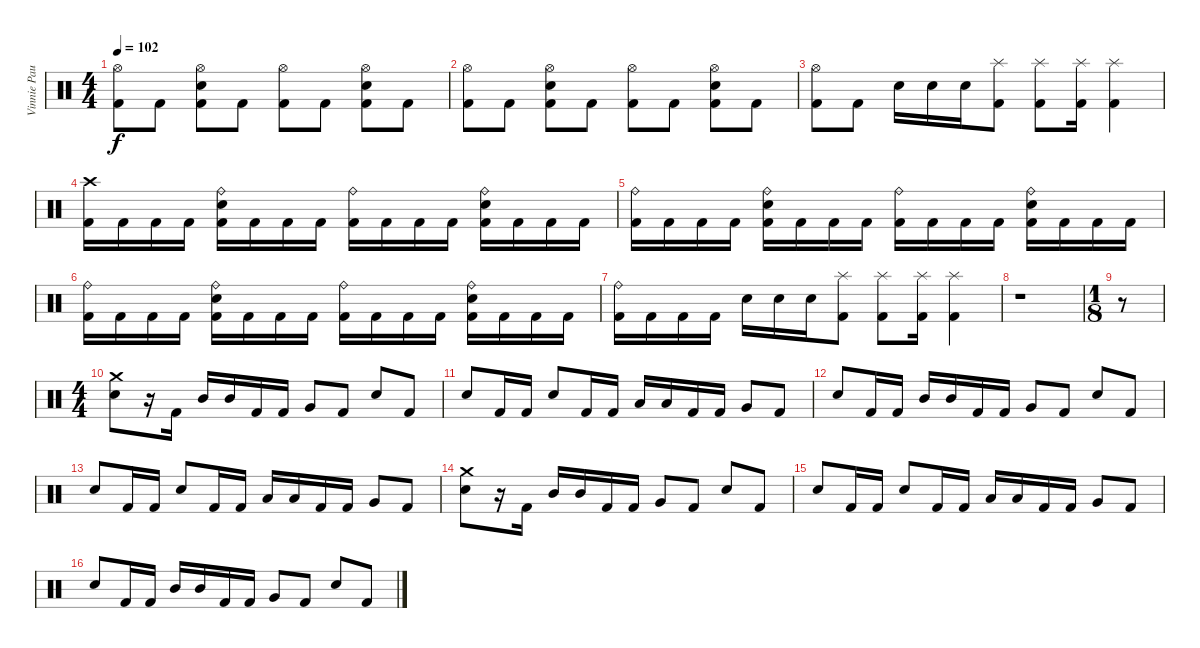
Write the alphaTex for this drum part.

\track ("Vinnie Paul" "Vinnie Pau") {instrument percussion}
\staff {score}
\articulation defaults
\ts (4 4)
\tempo 102
\clef neutral
\ks c
("Hi-Hat (open)" "Kick (hit) 2").8{dy f} "Kick (hit) 2".8 ("Hi-Hat (open)" "Snare (hit) 2" "Kick (hit) 2").8 "Kick (hit) 2".8 ("Hi-Hat (open)" "Kick (hit) 2").8 "Kick (hit) 2".8 ("Hi-Hat (open)" "Snare (hit) 2" "Kick (hit) 2").8 "Kick (hit) 2".8 |
("Hi-Hat (open)" "Kick (hit) 2").8 "Kick (hit) 2".8 ("Hi-Hat (open)" "Snare (hit) 2" "Kick (hit) 2").8 "Kick (hit) 2".8 ("Hi-Hat (open)" "Kick (hit) 2").8 "Kick (hit) 2".8 ("Hi-Hat (open)" "Snare (hit) 2" "Kick (hit) 2").8 "Kick (hit) 2".8 |
("Hi-Hat (open)" "Kick (hit) 2").8 "Kick (hit) 2".8 "Snare (hit) 2".16 "Snare (hit) 2".16 "Snare (hit) 2".16 ("Splash (hit)" "Kick (hit) 2").8 ("Splash (hit)" "Kick (hit) 2").8 ("Splash (hit)" "Kick (hit) 2").16 ("Splash (hit)" "Kick (hit) 2").4 |
("Crash high (hit)" "Kick (hit) 2").16 "Kick (hit) 2".16 "Kick (hit) 2".16 "Kick (hit) 2".16 ("Ride (bell)" "Snare (hit) 2" "Kick (hit) 2").16 "Kick (hit) 2".16 "Kick (hit) 2".16 "Kick (hit) 2".16 ("Ride (bell)" "Kick (hit) 2").16 "Kick (hit) 2".16 "Kick (hit) 2".16 "Kick (hit) 2".16 ("Ride (bell)" "Snare (hit) 2" "Kick (hit) 2").16 "Kick (hit) 2".16 "Kick (hit) 2".16 "Kick (hit) 2".16 |
("Ride (bell)" "Kick (hit) 2").16 "Kick (hit) 2".16 "Kick (hit) 2".16 "Kick (hit) 2".16 ("Ride (bell)" "Snare (hit) 2" "Kick (hit) 2").16 "Kick (hit) 2".16 "Kick (hit) 2".16 "Kick (hit) 2".16 ("Ride (bell)" "Kick (hit) 2").16 "Kick (hit) 2".16 "Kick (hit) 2".16 "Kick (hit) 2".16 ("Ride (bell)" "Snare (hit) 2" "Kick (hit) 2").16 "Kick (hit) 2".16 "Kick (hit) 2".16 "Kick (hit) 2".16 |
("Ride (bell)" "Kick (hit) 2").16 "Kick (hit) 2".16 "Kick (hit) 2".16 "Kick (hit) 2".16 ("Ride (bell)" "Snare (hit) 2" "Kick (hit) 2").16 "Kick (hit) 2".16 "Kick (hit) 2".16 "Kick (hit) 2".16 ("Ride (bell)" "Kick (hit) 2").16 "Kick (hit) 2".16 "Kick (hit) 2".16 "Kick (hit) 2".16 ("Ride (bell)" "Snare (hit) 2" "Kick (hit) 2").16 "Kick (hit) 2".16 "Kick (hit) 2".16 "Kick (hit) 2".16 |
("Ride (bell)" "Kick (hit) 2").16 "Kick (hit) 2".16 "Kick (hit) 2".16 "Kick (hit) 2".16 "Snare (hit) 2".16 "Snare (hit) 2".16 "Snare (hit) 2".16 ("Splash (hit)" "Kick (hit) 2").8 ("Splash (hit)" "Kick (hit) 2").8 ("Splash (hit)" "Kick (hit) 2").16 ("Splash (hit)" "Kick (hit) 2").4 |
r.1 |
\ts (1 8)
r.8 |
\ts (4 4)
("Crash medium (hit)" "Snare (hit) 2").8 r.16 "Kick (hit) 2".16 "Mid Tom (hit)".16 "Mid Tom (hit)".16 "Kick (hit) 2".16 "Kick (hit) 2".16 "Very Low Tom (hit)".8 "Kick (hit) 2".8 "Snare (hit) 2".8 "Kick (hit) 2".8 |
"Snare (hit) 2".8 "Kick (hit) 2".16 "Kick (hit) 2".16 "Snare (hit) 2".8 "Kick (hit) 2".16 "Kick (hit) 2".16 "Low Tom (hit)".16 "Low Tom (hit)".16 "Kick (hit) 2".16 "Kick (hit) 2".16 "Very Low Tom (hit)".8 "Kick (hit) 2".8 |
"Snare (hit) 2".8 "Kick (hit) 2".16 "Kick (hit) 2".16 "Mid Tom (hit)".16 "Mid Tom (hit)".16 "Kick (hit) 2".16 "Kick (hit) 2".16 "Very Low Tom (hit)".8 "Kick (hit) 2".8 "Snare (hit) 2".8 "Kick (hit) 2".8 |
"Snare (hit) 2".8 "Kick (hit) 2".16 "Kick (hit) 2".16 "Snare (hit) 2".8 "Kick (hit) 2".16 "Kick (hit) 2".16 "Low Tom (hit)".16 "Low Tom (hit)".16 "Kick (hit) 2".16 "Kick (hit) 2".16 "Very Low Tom (hit)".8 "Kick (hit) 2".8 |
("Crash medium (hit)" "Snare (hit) 2").8 r.16 "Kick (hit) 2".16 "Mid Tom (hit)".16 "Mid Tom (hit)".16 "Kick (hit) 2".16 "Kick (hit) 2".16 "Very Low Tom (hit)".8 "Kick (hit) 2".8 "Snare (hit) 2".8 "Kick (hit) 2".8 |
"Snare (hit) 2".8 "Kick (hit) 2".16 "Kick (hit) 2".16 "Snare (hit) 2".8 "Kick (hit) 2".16 "Kick (hit) 2".16 "Low Tom (hit)".16 "Low Tom (hit)".16 "Kick (hit) 2".16 "Kick (hit) 2".16 "Very Low Tom (hit)".8 "Kick (hit) 2".8 |
"Snare (hit) 2".8 "Kick (hit) 2".16 "Kick (hit) 2".16 "Mid Tom (hit)".16 "Mid Tom (hit)".16 "Kick (hit) 2".16 "Kick (hit) 2".16 "Very Low Tom (hit)".8 "Kick (hit) 2".8 "Snare (hit) 2".8 "Kick (hit) 2".8
